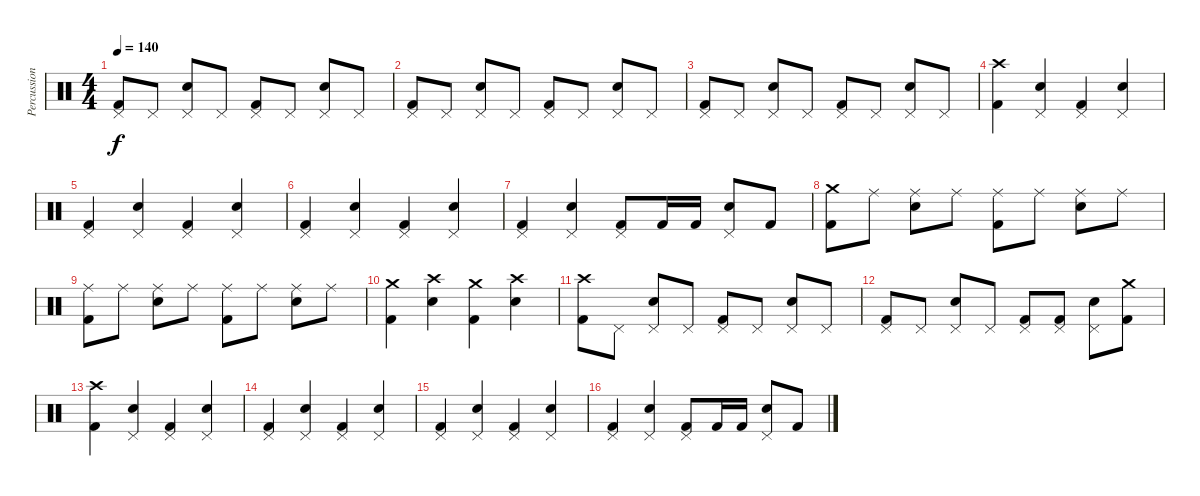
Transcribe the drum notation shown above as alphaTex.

\track ("Percussion" "Percussion") {instrument percussion}
\staff {score}
\articulation defaults
\ts (4 4)
\tempo 140
\clef neutral
\ks c
("Pedal Hi-Hat (hit)" "Kick (hit) 2").8{dy f} "Pedal Hi-Hat (hit)".8 ("Pedal Hi-Hat (hit)" "Snare (hit) 2").8 "Pedal Hi-Hat (hit)".8 ("Pedal Hi-Hat (hit)" "Kick (hit) 2").8 "Pedal Hi-Hat (hit)".8 ("Pedal Hi-Hat (hit)" "Snare (hit) 2").8 "Pedal Hi-Hat (hit)".8 |
("Pedal Hi-Hat (hit)" "Kick (hit) 2").8 "Pedal Hi-Hat (hit)".8 ("Pedal Hi-Hat (hit)" "Snare (hit) 2").8 "Pedal Hi-Hat (hit)".8 ("Pedal Hi-Hat (hit)" "Kick (hit) 2").8 "Pedal Hi-Hat (hit)".8 ("Pedal Hi-Hat (hit)" "Snare (hit) 2").8 "Pedal Hi-Hat (hit)".8 |
("Pedal Hi-Hat (hit)" "Kick (hit) 2").8 "Pedal Hi-Hat (hit)".8 ("Pedal Hi-Hat (hit)" "Snare (hit) 2").8 "Pedal Hi-Hat (hit)".8 ("Pedal Hi-Hat (hit)" "Kick (hit) 2").8 "Pedal Hi-Hat (hit)".8 ("Pedal Hi-Hat (hit)" "Snare (hit) 2").8 "Pedal Hi-Hat (hit)".8 |
("Crash high (hit)" "Kick (hit) 2").4 ("Pedal Hi-Hat (hit)" "Snare (hit) 2").4 ("Pedal Hi-Hat (hit)" "Kick (hit) 2").4 ("Pedal Hi-Hat (hit)" "Snare (hit) 2").4 |
("Pedal Hi-Hat (hit)" "Kick (hit) 2").4 ("Pedal Hi-Hat (hit)" "Snare (hit) 2").4 ("Pedal Hi-Hat (hit)" "Kick (hit) 2").4 ("Pedal Hi-Hat (hit)" "Snare (hit) 2").4 |
("Pedal Hi-Hat (hit)" "Kick (hit) 2").4 ("Pedal Hi-Hat (hit)" "Snare (hit) 2").4 ("Pedal Hi-Hat (hit)" "Kick (hit) 2").4 ("Pedal Hi-Hat (hit)" "Snare (hit) 2").4 |
("Pedal Hi-Hat (hit)" "Kick (hit) 2").4 ("Pedal Hi-Hat (hit)" "Snare (hit) 2").4 ("Pedal Hi-Hat (hit)" "Kick (hit) 2").8 "Kick (hit) 2".16 "Kick (hit) 2".16 ("Pedal Hi-Hat (hit)" "Snare (hit) 2").8 "Kick (hit) 2".8 |
("Crash medium (hit)" "Kick (hit) 2").8 "Ride (middle)".8 ("Ride (middle)" "Snare (hit) 2").8 "Ride (middle)".8 ("Ride (middle)" "Kick (hit) 2").8 "Ride (middle)".8 ("Ride (middle)" "Snare (hit) 2").8 "Ride (middle)".8 |
("Ride (middle)" "Kick (hit) 2").8 "Ride (middle)".8 ("Ride (middle)" "Snare (hit) 2").8 "Ride (middle)".8 ("Ride (middle)" "Kick (hit) 2").8 "Ride (middle)".8 ("Ride (middle)" "Snare (hit) 2").8 "Ride (middle)".8 |
("Crash medium (hit)" "Kick (hit) 2").4 ("Crash high (hit)" "Snare (hit) 2").4 ("Crash medium (hit)" "Kick (hit) 2").4 ("Crash high (hit)" "Snare (hit) 2").4 |
("Crash high (hit)" "Kick (hit) 2").8 "Pedal Hi-Hat (hit)".8 ("Pedal Hi-Hat (hit)" "Snare (hit) 2").8 "Pedal Hi-Hat (hit)".8 ("Pedal Hi-Hat (hit)" "Kick (hit) 2").8 "Pedal Hi-Hat (hit)".8 ("Pedal Hi-Hat (hit)" "Snare (hit) 2").8 "Pedal Hi-Hat (hit)".8 |
("Pedal Hi-Hat (hit)" "Kick (hit) 2").8 "Pedal Hi-Hat (hit)".8 ("Pedal Hi-Hat (hit)" "Snare (hit) 2").8 "Pedal Hi-Hat (hit)".8 ("Pedal Hi-Hat (hit)" "Kick (hit) 2").8 ("Pedal Hi-Hat (hit)" "Kick (hit) 2").8 ("Pedal Hi-Hat (hit)" "Snare (hit) 2").8 ("Crash medium (hit)" "Kick (hit) 2").8 |
("Crash high (hit)" "Kick (hit) 2").4 ("Pedal Hi-Hat (hit)" "Snare (hit) 2").4 ("Pedal Hi-Hat (hit)" "Kick (hit) 2").4 ("Pedal Hi-Hat (hit)" "Snare (hit) 2").4 |
("Pedal Hi-Hat (hit)" "Kick (hit) 2").4 ("Pedal Hi-Hat (hit)" "Snare (hit) 2").4 ("Pedal Hi-Hat (hit)" "Kick (hit) 2").4 ("Pedal Hi-Hat (hit)" "Snare (hit) 2").4 |
("Pedal Hi-Hat (hit)" "Kick (hit) 2").4 ("Pedal Hi-Hat (hit)" "Snare (hit) 2").4 ("Pedal Hi-Hat (hit)" "Kick (hit) 2").4 ("Pedal Hi-Hat (hit)" "Snare (hit) 2").4 |
("Pedal Hi-Hat (hit)" "Kick (hit) 2").4 ("Pedal Hi-Hat (hit)" "Snare (hit) 2").4 ("Pedal Hi-Hat (hit)" "Kick (hit) 2").8 "Kick (hit) 2".16 "Kick (hit) 2".16 ("Pedal Hi-Hat (hit)" "Snare (hit) 2").8 "Kick (hit) 2".8
